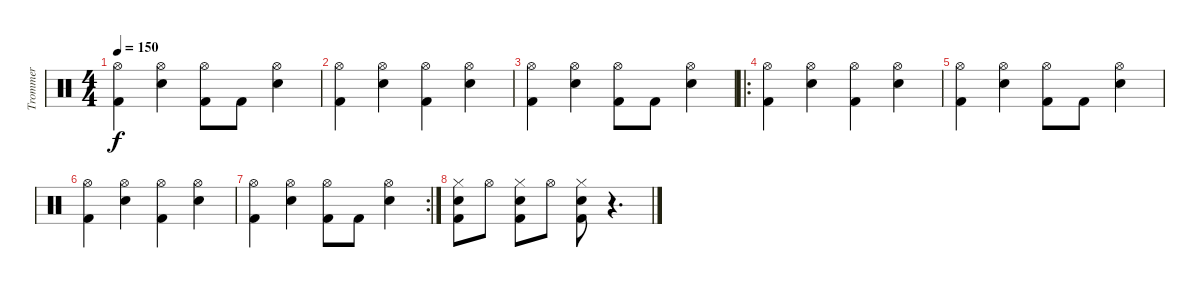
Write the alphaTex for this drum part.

\track ("Trommer" "Trommer") {instrument percussion}
\staff {score}
\articulation defaults
\ts (4 4)
\tempo 150
\clef neutral
\ks c
("Hi-Hat (open)" "Kick (hit) 2").4{dy f} ("Hi-Hat (open)" "Snare (hit) 2").4 ("Hi-Hat (open)" "Kick (hit) 2").8 "Kick (hit) 2".8 ("Hi-Hat (open)" "Snare (hit) 2").4 |
("Hi-Hat (open)" "Kick (hit) 2").4 ("Hi-Hat (open)" "Snare (hit) 2").4 ("Hi-Hat (open)" "Kick (hit) 2").4 ("Hi-Hat (open)" "Snare (hit) 2").4 |
("Hi-Hat (open)" "Kick (hit) 2").4 ("Hi-Hat (open)" "Snare (hit) 2").4 ("Hi-Hat (open)" "Kick (hit) 2").8 "Kick (hit) 2".8 ("Hi-Hat (open)" "Snare (hit) 2").4 |
\ro
("Hi-Hat (open)" "Kick (hit) 2").4 ("Hi-Hat (open)" "Snare (hit) 2").4 ("Hi-Hat (open)" "Kick (hit) 2").4 ("Hi-Hat (open)" "Snare (hit) 2").4 |
("Hi-Hat (open)" "Kick (hit) 2").4 ("Hi-Hat (open)" "Snare (hit) 2").4 ("Hi-Hat (open)" "Kick (hit) 2").8 "Kick (hit) 2".8 ("Hi-Hat (open)" "Snare (hit) 2").4 |
("Hi-Hat (open)" "Kick (hit) 2").4 ("Hi-Hat (open)" "Snare (hit) 2").4 ("Hi-Hat (open)" "Kick (hit) 2").4 ("Hi-Hat (open)" "Snare (hit) 2").4 |
\rc 2
("Hi-Hat (open)" "Kick (hit) 2").4 ("Hi-Hat (open)" "Snare (hit) 2").4 ("Hi-Hat (open)" "Kick (hit) 2").8 "Kick (hit) 2".8 ("Hi-Hat (open)" "Snare (hit) 2").4 |
("Hi-Hat (closed)" "Snare (hit) 2" "Kick (hit) 2").8 "Hi-Hat (open)".8 ("Hi-Hat (closed)" "Snare (hit) 2" "Kick (hit) 2").8 "Hi-Hat (open)".8 ("Hi-Hat (closed)" "Snare (hit) 2" "Kick (hit) 2").8 r.4{d}
